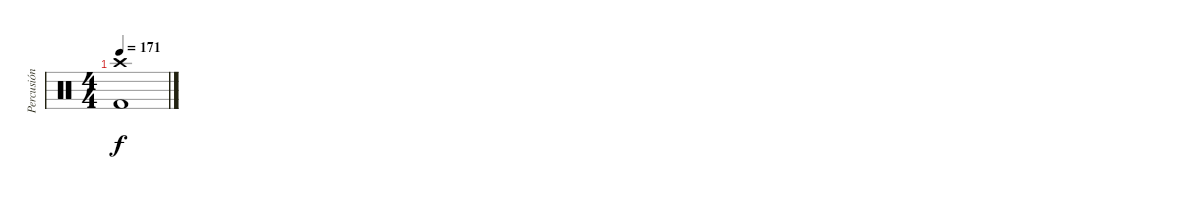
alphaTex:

\track ("Percusión" "Percusión") {instrument percussion}
\staff {score}
\articulation defaults
\ts (4 4)
\tempo 171
\clef neutral
\ks c
("Crash high (hit)" "Kick (hit) 2").1{dy f}
